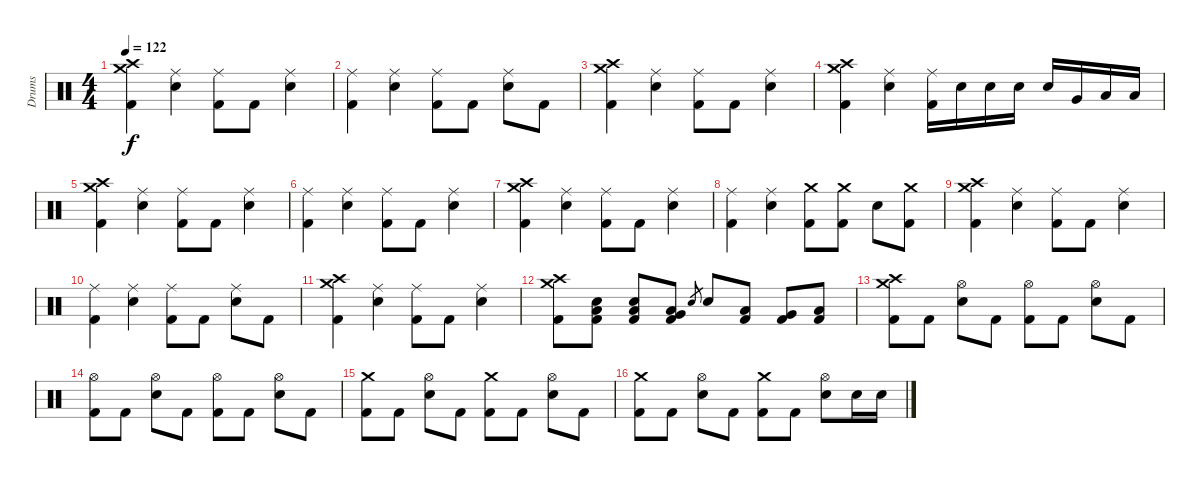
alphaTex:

\track ("Drums" "Drums") {instrument percussion}
\staff {score}
\articulation defaults
\ts (4 4)
\tempo 122
\clef neutral
\ks c
("Crash medium (hit)" "Crash high (hit)" "Kick (hit) 2").4{dy f} ("Ride (middle)" "Electric Snare (hit)").4 ("Ride (middle)" "Kick (hit) 2").8 "Kick (hit) 2".8 ("Ride (middle)" "Electric Snare (hit)").4 |
("Ride (middle)" "Kick (hit) 2").4 ("Ride (middle)" "Electric Snare (hit)").4 ("Ride (middle)" "Kick (hit) 2").8 "Kick (hit) 2".8 ("Ride (middle)" "Electric Snare (hit)").8 "Kick (hit) 2".8 |
("Crash medium (hit)" "Crash high (hit)" "Kick (hit) 2").4 ("Ride (middle)" "Electric Snare (hit)").4 ("Ride (middle)" "Kick (hit) 2").8 "Kick (hit) 2".8 ("Ride (middle)" "Electric Snare (hit)").4 |
("Crash medium (hit)" "Crash high (hit)" "Kick (hit) 2").4 ("Ride (middle)" "Electric Snare (hit)").4 ("Ride (middle)" "Kick (hit) 2").16 "Electric Snare (hit)".16 "Electric Snare (hit)".16 "Electric Snare (hit)".16 "Electric Snare (hit)".16 "Very Low Tom (hit)".16 "Low Floor Tom (hit)".16 "Low Floor Tom (hit)".16 |
("Crash medium (hit)" "Crash high (hit)" "Kick (hit) 2").4 ("Ride (middle)" "Electric Snare (hit)").4 ("Ride (middle)" "Kick (hit) 2").8 "Kick (hit) 2".8 ("Ride (middle)" "Electric Snare (hit)").4 |
("Ride (middle)" "Kick (hit) 2").4 ("Ride (middle)" "Electric Snare (hit)").4 ("Ride (middle)" "Kick (hit) 2").8 "Kick (hit) 2".8 ("Ride (middle)" "Electric Snare (hit)").4 |
("Crash medium (hit)" "Crash high (hit)" "Kick (hit) 2").4 ("Ride (middle)" "Electric Snare (hit)").4 ("Ride (middle)" "Kick (hit) 2").8 "Kick (hit) 2".8 ("Ride (middle)" "Electric Snare (hit)").4 |
("Ride (middle)" "Kick (hit) 2").4 ("Ride (middle)" "Electric Snare (hit)").4 ("Crash medium (hit)" "Kick (hit) 2").8 ("Crash medium (hit)" "Kick (hit) 2").8 "Electric Snare (hit)".8 ("Crash medium (hit)" "Kick (hit) 2").8 |
("Crash medium (hit)" "Crash high (hit)" "Kick (hit) 2").4 ("Ride (middle)" "Electric Snare (hit)").4 ("Ride (middle)" "Kick (hit) 2").8 "Kick (hit) 2".8 ("Ride (middle)" "Electric Snare (hit)").4 |
("Ride (middle)" "Kick (hit) 2").4 ("Ride (middle)" "Electric Snare (hit)").4 ("Ride (middle)" "Kick (hit) 2").8 "Kick (hit) 2".8 ("Ride (middle)" "Electric Snare (hit)").8 "Kick (hit) 2".8 |
("Crash medium (hit)" "Crash high (hit)" "Kick (hit) 2").4 ("Ride (middle)" "Electric Snare (hit)").4 ("Ride (middle)" "Kick (hit) 2").8 "Kick (hit) 2".8 ("Ride (middle)" "Electric Snare (hit)").4 |
("Crash medium (hit)" "Crash high (hit)" "Kick (hit) 2").8 ("Low Floor Tom (hit)" "Electric Snare (hit)" "Kick (hit) 2").8 ("Low Floor Tom (hit)" "Electric Snare (hit)" "Kick (hit) 2").8 ("Low Floor Tom (hit)" "Very Low Tom (hit)" "Kick (hit) 2").8 "Electric Snare (hit)".8{gr} "Electric Snare (hit)".8 ("Low Tom (hit)" "Kick (hit) 2").8 ("Very Low Tom (hit)" "Kick (hit) 2").8 ("Low Floor Tom (hit)" "Kick (hit) 2").8 |
("Crash medium (hit)" "Crash high (hit)" "Kick (hit) 2").8 "Kick (hit) 2".8 ("Hi-Hat (open)" "Electric Snare (hit)").8 "Kick (hit) 2".8 ("Hi-Hat (open)" "Kick (hit) 2").8 "Kick (hit) 2".8 ("Hi-Hat (open)" "Electric Snare (hit)").8 "Kick (hit) 2".8 |
("Hi-Hat (open)" "Kick (hit) 2").8 "Kick (hit) 2".8 ("Hi-Hat (open)" "Electric Snare (hit)").8 "Kick (hit) 2".8 ("Hi-Hat (open)" "Kick (hit) 2").8 "Kick (hit) 2".8 ("Hi-Hat (open)" "Electric Snare (hit)").8 "Kick (hit) 2".8 |
("Crash medium (hit)" "Kick (hit) 2").8 "Kick (hit) 2".8 ("Hi-Hat (open)" "Electric Snare (hit)").8 "Kick (hit) 2".8 ("Crash medium (hit)" "Kick (hit) 2").8 "Kick (hit) 2".8 ("Hi-Hat (open)" "Electric Snare (hit)").8 "Kick (hit) 2".8 |
("Crash medium (hit)" "Kick (hit) 2").8 "Kick (hit) 2".8 ("Hi-Hat (open)" "Electric Snare (hit)").8 "Kick (hit) 2".8 ("Crash medium (hit)" "Kick (hit) 2").8 "Kick (hit) 2".8 ("Hi-Hat (open)" "Electric Snare (hit)").8 "Electric Snare (hit)".16 "Electric Snare (hit)".16
